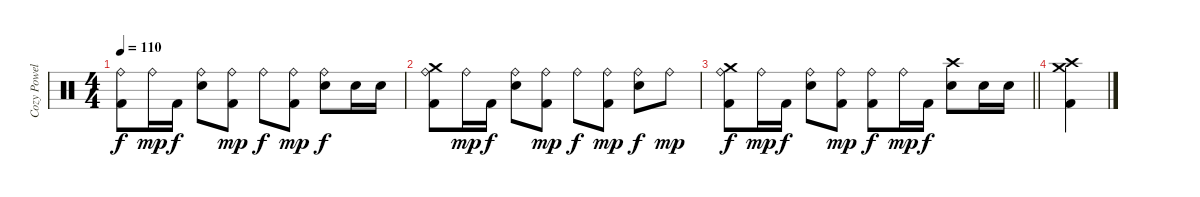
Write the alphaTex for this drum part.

\track ("Cozy Powell" "Cozy Powel") {instrument percussion}
\staff {score}
\articulation defaults
\ts (4 4)
\tempo 110
\clef neutral
\ks c
("Ride (bell)" "Kick (hit) 2").8{dy f} "Ride (bell)".16{dy mp} "Kick (hit) 2".16{dy f} ("Ride (bell)" "Snare (hit) 2").8 ("Ride (bell)" "Kick (hit) 2").8{dy mp} "Ride (bell)".8{dy f} ("Ride (bell)" "Kick (hit) 2").8{dy mp} ("Ride (bell)" "Snare (hit) 2").8{dy f} "Snare (hit) 2".16 "Snare (hit) 2".16 |
("Crash medium (hit)" "Ride (bell)" "Kick (hit) 2").8 "Ride (bell)".16{dy mp} "Kick (hit) 2".16{dy f} ("Ride (bell)" "Snare (hit) 2").8 ("Ride (bell)" "Kick (hit) 2").8{dy mp} "Ride (bell)".8{dy f} ("Ride (bell)" "Kick (hit) 2").8{dy mp} ("Ride (bell)" "Snare (hit) 2").8{dy f} "Ride (bell)".8{dy mp} |
\barLineRight lightlight
("Crash medium (hit)" "Ride (bell)" "Kick (hit) 2").8{dy f} "Ride (bell)".16{dy mp} "Kick (hit) 2".16{dy f} ("Ride (bell)" "Snare (hit) 2").8 ("Ride (bell)" "Kick (hit) 2").8{dy mp} ("Ride (bell)" "Kick (hit) 2").8{dy f} "Ride (bell)".16{dy mp} "Kick (hit) 2".16{dy f} ("Crash high (hit)" "Snare (hit) 2").8 "Snare (hit) 2".16 "Snare (hit) 2".16 |
("Crash medium (hit)" "Crash high (hit)" "Kick (hit) 2").4
